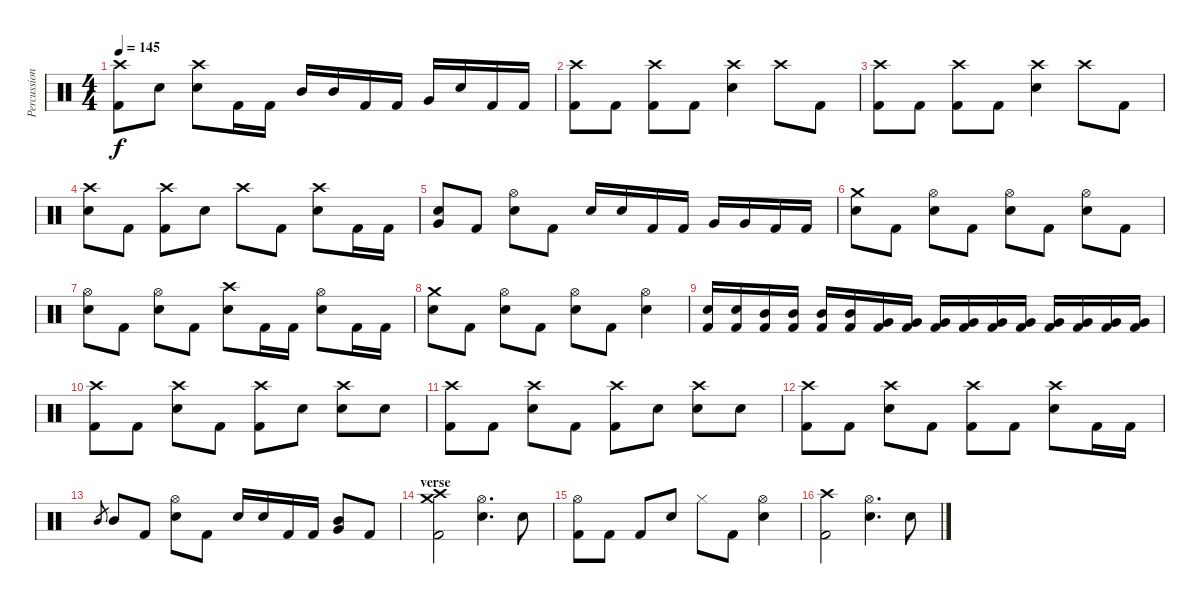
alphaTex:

\track ("Percussion" "Percussion") {instrument percussion}
\staff {score}
\articulation defaults
\ts (4 4)
\tempo 145
\clef neutral
\ks c
("Crash high (hit)" "Kick (hit) 2").8{dy f} "Snare (hit) 2".8 ("Crash high (hit)" "Snare (hit) 2").8 "Kick (hit) 2".16 "Kick (hit) 2".16 "Mid Tom (hit)".16 "Mid Tom (hit)".16 "Kick (hit) 2".16 "Kick (hit) 2".16 "Very Low Tom (hit)".16 "Snare (hit) 2".16 "Kick (hit) 2".16 "Kick (hit) 2".16 |
("Crash high (hit)" "Kick (hit) 2").8 "Kick (hit) 2".8 ("Crash high (hit)" "Kick (hit) 2").8 "Kick (hit) 2".8 ("Crash high (hit)" "Snare (hit) 2").4 "Crash high (hit)".8 "Kick (hit) 2".8 |
("Crash high (hit)" "Kick (hit) 2").8 "Kick (hit) 2".8 ("Crash high (hit)" "Kick (hit) 2").8 "Kick (hit) 2".8 ("Crash high (hit)" "Snare (hit) 2").4 "Crash high (hit)".8 "Kick (hit) 2".8 |
("Crash high (hit)" "Snare (hit) 2").8 "Kick (hit) 2".8 ("Crash high (hit)" "Kick (hit) 2").8 "Snare (hit) 2".8 "Crash high (hit)".8 "Kick (hit) 2".8 ("Crash high (hit)" "Snare (hit) 2").8 "Kick (hit) 2".16 "Kick (hit) 2".16 |
("Snare (hit) 2" "Very Low Tom (hit)").8 "Kick (hit) 2".8 ("Hi-Hat (open)" "Snare (hit) 2").8 "Kick (hit) 2".8 "Snare (hit) 2".16 "Snare (hit) 2".16 "Kick (hit) 2".16 "Kick (hit) 2".16 "Very Low Tom (hit)".16 "Very Low Tom (hit)".16 "Kick (hit) 2".16 "Kick (hit) 2".16 |
("Crash medium (hit)" "Snare (hit) 2").8 "Kick (hit) 2".8 ("Hi-Hat (open)" "Snare (hit) 2").8 "Kick (hit) 2".8 ("Hi-Hat (open)" "Snare (hit) 2").8 "Kick (hit) 2".8 ("Hi-Hat (open)" "Snare (hit) 2").8 "Kick (hit) 2".8 |
("Hi-Hat (open)" "Snare (hit) 2").8 "Kick (hit) 2".8 ("Hi-Hat (open)" "Snare (hit) 2").8 "Kick (hit) 2".8 ("Crash high (hit)" "Snare (hit) 2").8 "Kick (hit) 2".16 "Kick (hit) 2".16 ("Hi-Hat (open)" "Snare (hit) 2").8 "Kick (hit) 2".16 "Kick (hit) 2".16 |
("Crash medium (hit)" "Snare (hit) 2").8 "Kick (hit) 2".8 ("Hi-Hat (open)" "Snare (hit) 2").8 "Kick (hit) 2".8 ("Hi-Hat (open)" "Snare (hit) 2").8 "Kick (hit) 2".8 ("Hi-Hat (open)" "Snare (hit) 2").4 |
("Snare (hit) 2" "Kick (hit) 2").16 ("Snare (hit) 2" "Kick (hit) 2").16 ("Mid Tom (hit)" "Kick (hit) 2").16 ("Mid Tom (hit)" "Kick (hit) 2").16 ("Mid Tom (hit)" "Kick (hit) 2").16 ("Mid Tom (hit)" "Kick (hit) 2").16 ("Very Low Tom (hit)" "Kick (hit) 2").16 ("Very Low Tom (hit)" "Kick (hit) 2").16 ("Very Low Tom (hit)" "Kick (hit) 2").16 ("Very Low Tom (hit)" "Kick (hit) 2").16 ("Very Low Tom (hit)" "Kick (hit) 2").16 ("Very Low Tom (hit)" "Kick (hit) 2").16 ("Very Low Tom (hit)" "Kick (hit) 2").16 ("Very Low Tom (hit)" "Kick (hit) 2").16 ("Very Low Tom (hit)" "Kick (hit) 2").16 ("Very Low Tom (hit)" "Kick (hit) 2").16 |
("Crash high (hit)" "Kick (hit) 2").8 "Kick (hit) 2".8 ("Crash high (hit)" "Snare (hit) 2").8 "Kick (hit) 2".8 ("Crash high (hit)" "Kick (hit) 2").8 "Snare (hit) 2".8 ("Crash high (hit)" "Snare (hit) 2").8 "Snare (hit) 2".8 |
("Crash high (hit)" "Kick (hit) 2").8 "Kick (hit) 2".8 ("Crash high (hit)" "Snare (hit) 2").8 "Kick (hit) 2".8 ("Crash high (hit)" "Kick (hit) 2").8 "Snare (hit) 2".8 ("Crash high (hit)" "Snare (hit) 2").8 "Snare (hit) 2".8 |
("Crash high (hit)" "Kick (hit) 2").8 "Kick (hit) 2".8 ("Crash high (hit)" "Snare (hit) 2").8 "Kick (hit) 2".8 ("Crash high (hit)" "Kick (hit) 2").8 "Kick (hit) 2".8 ("Crash high (hit)" "Snare (hit) 2").8 "Kick (hit) 2".16 "Kick (hit) 2".16 |
"Mid Tom (hit)".8{gr} "Mid Tom (hit)".8 "Kick (hit) 2".8 ("Hi-Hat (open)" "Snare (hit) 2").8 "Kick (hit) 2".8 "Snare (hit) 2".16 "Snare (hit) 2".16 "Kick (hit) 2".16 "Kick (hit) 2".16 ("Mid Tom (hit)" "Very Low Tom (hit)").8 "Kick (hit) 2".8 |
\section ("" "verse")
("Crash high (hit)" "Crash medium (hit)" "Kick (hit) 2").2 ("Hi-Hat (open)" "Snare (hit) 2").4{d} "Snare (hit) 2".8 |
("Hi-Hat (open)" "Kick (hit) 2").8 "Kick (hit) 2".8 "Kick (hit) 2".8 "Snare (hit) 2".8 "Hi-Hat (closed)".8 "Kick (hit) 2".8 ("Hi-Hat (open)" "Snare (hit) 2").4 |
("Crash high (hit)" "Kick (hit) 2").2 ("Hi-Hat (open)" "Snare (hit) 2").4{d} "Snare (hit) 2".8
